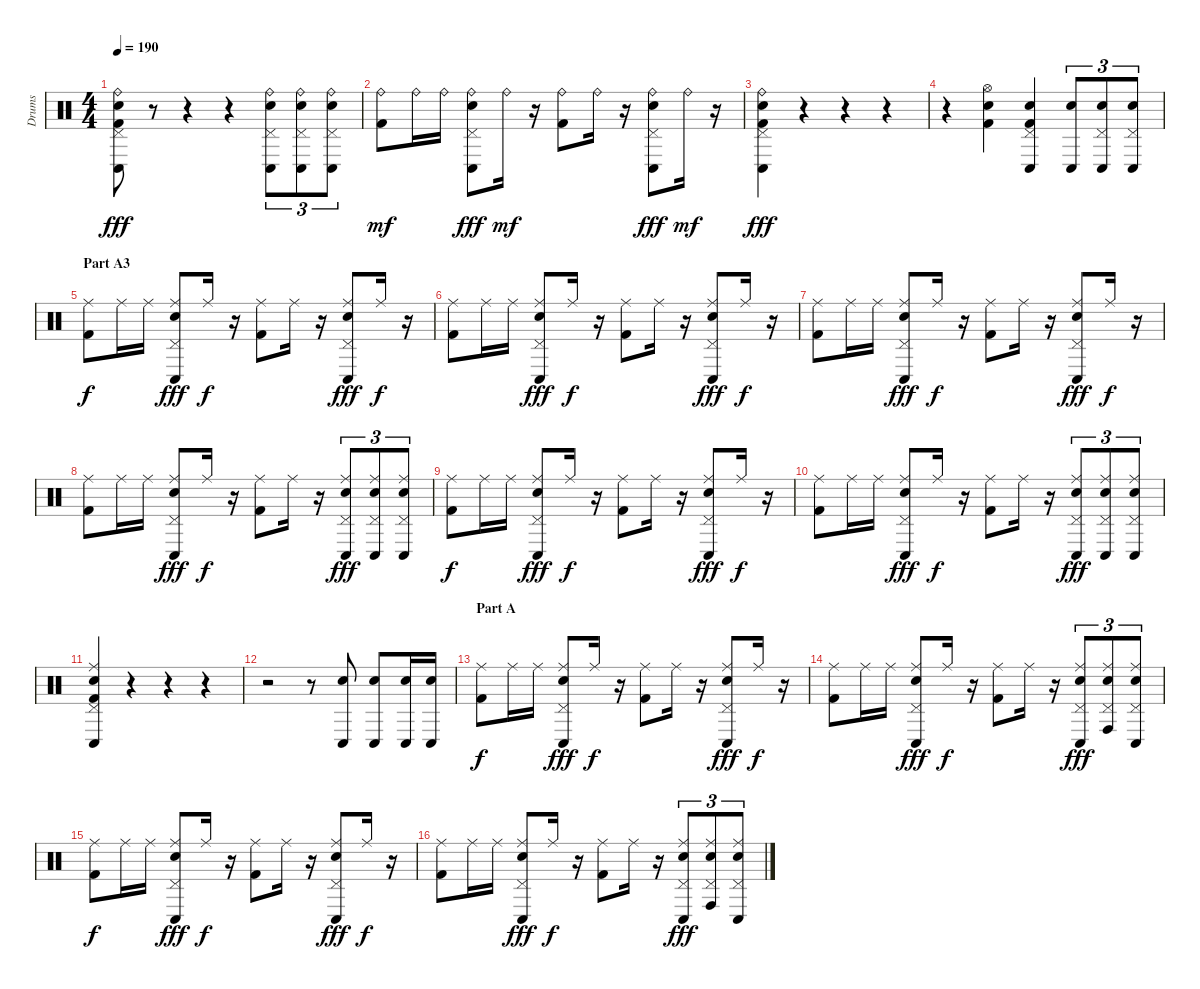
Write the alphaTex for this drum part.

\track ("Drums" "Drums") {instrument percussion}
\staff {score}
\articulation defaults
\ts (4 4)
\tempo 190
\clef neutral
\ks c
("Ride (bell)" "Pedal Hi-Hat (hit)" "Conga low (hit)" "Electric Snare (hit)" "Kick (hit) 2").8{dy fff} r.8 r.4 r.4 ("Ride (bell)" "Pedal Hi-Hat (hit)" "Conga low (hit)" "Electric Snare (hit)").8{tu (3 2)} ("Ride (bell)" "Pedal Hi-Hat (hit)" "Conga low (hit)" "Electric Snare (hit)").8{tu (3 2)} ("Ride (bell)" "Pedal Hi-Hat (hit)" "Conga low (hit)" "Electric Snare (hit)").8{tu (3 2)} |
("Ride (bell)" "Kick (hit) 2").8{dy mf} "Ride (bell)".16 "Ride (bell)".16 ("Ride (bell)" "Pedal Hi-Hat (hit)" "Conga low (hit)" "Electric Snare (hit)").8{dy fff} "Ride (bell)".16{dy mf} r.16 ("Ride (bell)" "Kick (hit) 2").8 "Ride (bell)".16 r.16 ("Ride (bell)" "Pedal Hi-Hat (hit)" "Conga low (hit)" "Electric Snare (hit)").8{dy fff} "Ride (bell)".16{dy mf} r.16 |
("Ride (bell)" "Pedal Hi-Hat (hit)" "Conga low (hit)" "Electric Snare (hit)" "Kick (hit) 2").4{dy fff} r.4 r.4 r.4 |
r.4 ("Hi-Hat (open)" "Electric Snare (hit)" "Kick (hit) 2").4 ("Pedal Hi-Hat (hit)" "Conga low (hit)" "Electric Snare (hit)" "Kick (hit) 2").4 ("Conga low (hit)" "Electric Snare (hit)").8{tu (3 2)} ("Pedal Hi-Hat (hit)" "Conga low (hit)" "Electric Snare (hit)").8{tu (3 2)} ("Pedal Hi-Hat (hit)" "Conga low (hit)" "Electric Snare (hit)").8{tu (3 2)} |
\section ("" "Part A3")
("Ride (middle)" "Kick (hit) 2").8{dy f} "Ride (middle)".16 "Ride (middle)".16 ("Ride (middle)" "Pedal Hi-Hat (hit)" "Conga low (hit)" "Electric Snare (hit)").8{dy fff} "Ride (middle)".16{dy f} r.16 ("Ride (middle)" "Kick (hit) 2").8 "Ride (middle)".16 r.16 ("Ride (middle)" "Pedal Hi-Hat (hit)" "Conga low (hit)" "Electric Snare (hit)").8{dy fff} "Ride (middle)".16{dy f} r.16 |
("Ride (middle)" "Kick (hit) 2").8 "Ride (middle)".16 "Ride (middle)".16 ("Ride (middle)" "Pedal Hi-Hat (hit)" "Conga low (hit)" "Electric Snare (hit)").8{dy fff} "Ride (middle)".16{dy f} r.16 ("Ride (middle)" "Kick (hit) 2").8 "Ride (middle)".16 r.16 ("Ride (middle)" "Pedal Hi-Hat (hit)" "Conga low (hit)" "Electric Snare (hit)").8{dy fff} "Ride (middle)".16{dy f} r.16 |
("Ride (middle)" "Kick (hit) 2").8 "Ride (middle)".16 "Ride (middle)".16 ("Ride (middle)" "Pedal Hi-Hat (hit)" "Conga low (hit)" "Electric Snare (hit)").8{dy fff} "Ride (middle)".16{dy f} r.16 ("Ride (middle)" "Kick (hit) 2").8 "Ride (middle)".16 r.16 ("Ride (middle)" "Pedal Hi-Hat (hit)" "Conga low (hit)" "Electric Snare (hit)").8{dy fff} "Ride (middle)".16{dy f} r.16 |
("Ride (middle)" "Kick (hit) 2").8 "Ride (middle)".16 "Ride (middle)".16 ("Ride (middle)" "Pedal Hi-Hat (hit)" "Conga low (hit)" "Electric Snare (hit)").8{dy fff} "Ride (middle)".16{dy f} r.16 ("Ride (middle)" "Kick (hit) 2").8 "Ride (middle)".16 r.16 ("Ride (middle)" "Pedal Hi-Hat (hit)" "Conga low (hit)" "Electric Snare (hit)").8{tu (3 2) dy fff} ("Ride (middle)" "Pedal Hi-Hat (hit)" "Conga low (hit)" "Electric Snare (hit)").8{tu (3 2)} ("Ride (middle)" "Pedal Hi-Hat (hit)" "Conga low (hit)" "Electric Snare (hit)").8{tu (3 2)} |
("Ride (middle)" "Kick (hit) 2").8{dy f} "Ride (middle)".16 "Ride (middle)".16 ("Ride (middle)" "Pedal Hi-Hat (hit)" "Conga low (hit)" "Electric Snare (hit)").8{dy fff} "Ride (middle)".16{dy f} r.16 ("Ride (middle)" "Kick (hit) 2").8 "Ride (middle)".16 r.16 ("Ride (middle)" "Pedal Hi-Hat (hit)" "Conga low (hit)" "Electric Snare (hit)").8{dy fff} "Ride (middle)".16{dy f} r.16 |
("Ride (middle)" "Kick (hit) 2").8 "Ride (middle)".16 "Ride (middle)".16 ("Ride (middle)" "Pedal Hi-Hat (hit)" "Conga low (hit)" "Electric Snare (hit)").8{dy fff} "Ride (middle)".16{dy f} r.16 ("Ride (middle)" "Kick (hit) 2").8 "Ride (middle)".16 r.16 ("Ride (middle)" "Pedal Hi-Hat (hit)" "Conga low (hit)" "Electric Snare (hit)").8{tu (3 2) dy fff} ("Ride (middle)" "Pedal Hi-Hat (hit)" "Conga low (hit)" "Electric Snare (hit)").8{tu (3 2)} ("Ride (middle)" "Pedal Hi-Hat (hit)" "Conga low (hit)" "Electric Snare (hit)").8{tu (3 2)} |
("Ride (middle)" "Pedal Hi-Hat (hit)" "Conga low (hit)" "Electric Snare (hit)" "Kick (hit) 2").4 r.4 r.4 r.4 |
r.2 r.8 ("Conga low (hit)" "Electric Snare (hit)").8 ("Conga low (hit)" "Electric Snare (hit)").8 ("Conga low (hit)" "Electric Snare (hit)").16 ("Conga low (hit)" "Electric Snare (hit)").16 |
\section ("" "Part A")
("Ride (middle)" "Kick (hit) 2").8{dy f} "Ride (middle)".16 "Ride (middle)".16 ("Ride (middle)" "Pedal Hi-Hat (hit)" "Conga low (hit)" "Electric Snare (hit)").8{dy fff} "Ride (middle)".16{dy f} r.16 ("Ride (middle)" "Kick (hit) 2").8 "Ride (middle)".16 r.16 ("Ride (middle)" "Pedal Hi-Hat (hit)" "Conga low (hit)" "Electric Snare (hit)").8{dy fff} "Ride (middle)".16{dy f} r.16 |
("Ride (middle)" "Kick (hit) 2").8 "Ride (middle)".16 "Ride (middle)".16 ("Ride (middle)" "Pedal Hi-Hat (hit)" "Conga low (hit)" "Electric Snare (hit)").8{dy fff} "Ride (middle)".16{dy f} r.16 ("Ride (middle)" "Kick (hit) 2").8 "Ride (middle)".16 r.16 ("Ride (middle)" "Pedal Hi-Hat (hit)" "Conga low (hit)" "Electric Snare (hit)").8{tu (3 2) dy fff} ("Ride (middle)" "Pedal Hi-Hat (hit)" "Conga high (hit)" "Electric Snare (hit)").8{tu (3 2)} ("Ride (middle)" "Pedal Hi-Hat (hit)" "Conga low (hit)" "Electric Snare (hit)").8{tu (3 2)} |
("Ride (middle)" "Kick (hit) 2").8{dy f} "Ride (middle)".16 "Ride (middle)".16 ("Ride (middle)" "Pedal Hi-Hat (hit)" "Conga low (hit)" "Electric Snare (hit)").8{dy fff} "Ride (middle)".16{dy f} r.16 ("Ride (middle)" "Kick (hit) 2").8 "Ride (middle)".16 r.16 ("Ride (middle)" "Pedal Hi-Hat (hit)" "Conga low (hit)" "Electric Snare (hit)").8{dy fff} "Ride (middle)".16{dy f} r.16 |
("Ride (middle)" "Kick (hit) 2").8 "Ride (middle)".16 "Ride (middle)".16 ("Ride (middle)" "Pedal Hi-Hat (hit)" "Conga low (hit)" "Electric Snare (hit)").8{dy fff} "Ride (middle)".16{dy f} r.16 ("Ride (middle)" "Kick (hit) 2").8 "Ride (middle)".16 r.16 ("Ride (middle)" "Pedal Hi-Hat (hit)" "Conga low (hit)" "Electric Snare (hit)").8{tu (3 2) dy fff} ("Ride (middle)" "Pedal Hi-Hat (hit)" "Conga high (hit)" "Electric Snare (hit)").8{tu (3 2)} ("Ride (middle)" "Pedal Hi-Hat (hit)" "Conga low (hit)" "Electric Snare (hit)").8{tu (3 2)}
